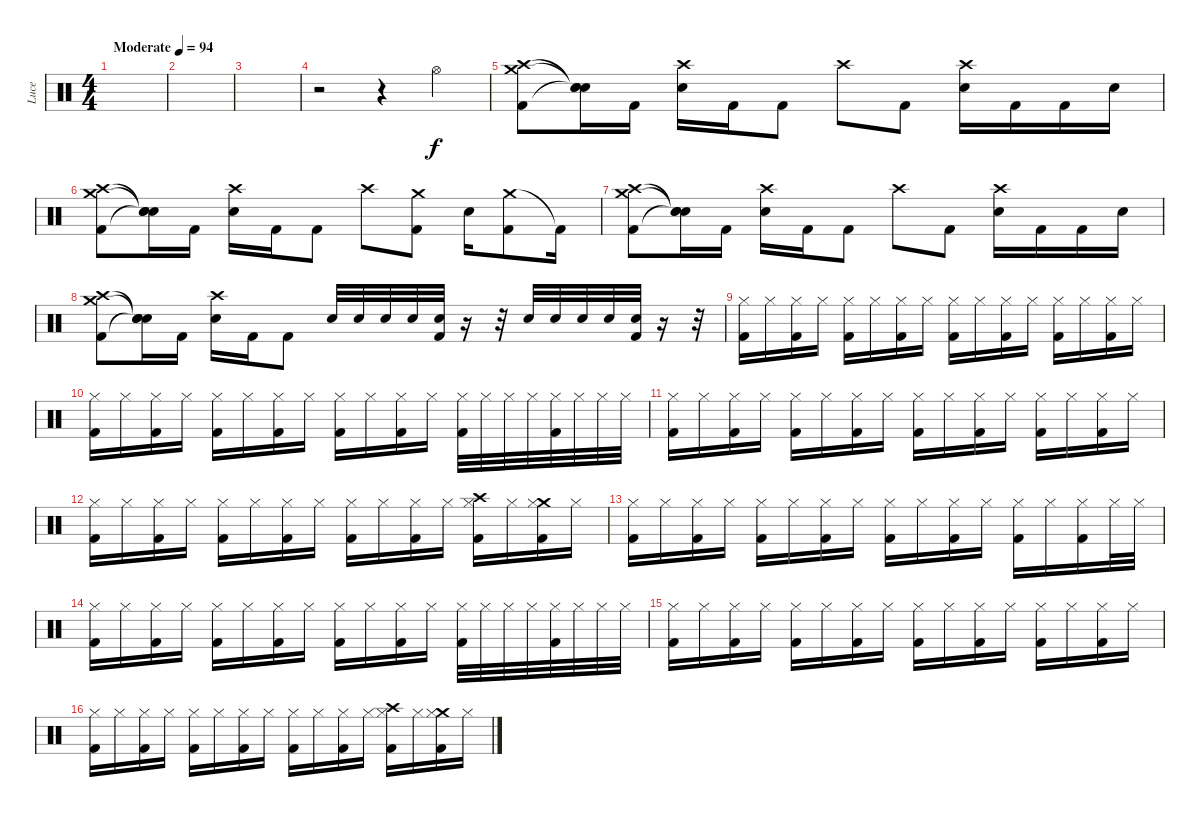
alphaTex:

\track ("Luce" "Luce") {instrument percussion}
\staff {score}
\articulation defaults
\ts (4 4)
\tempo (94 "Moderate")
\clef neutral
\ks c
|
|
|
r.2 r.4 "Hi-Hat (open)".4 |
("Crash high (hit)" "Crash medium (hit)" "Kick (hit) 2").8 ("Snare (hit)"{t} "Snare (hit)"{t} "Snare (hit)"{t}).16 "Kick (hit) 2".16 ("Crash high (hit)" "Electric Snare (hit)").16 "Kick (hit) 2".16 "Kick (hit) 2".8 "Crash high (hit)".8 "Kick (hit) 2".8 ("Crash high (hit)" "Electric Snare (hit)").16 "Kick (hit) 2".16 "Kick (hit) 2".16 "Electric Snare (hit)".16 |
("Crash high (hit)" "Crash medium (hit)" "Kick (hit) 2").8 ("Snare (hit)"{t} "Snare (hit)"{t} "Snare (hit)"{t}).16 "Kick (hit) 2".16 ("Crash high (hit)" "Electric Snare (hit)").16 "Kick (hit) 2".16 "Kick (hit) 2".8 "Crash high (hit)".8 ("Crash medium (hit)" "Kick (hit) 2").8 "Electric Snare (hit)".16 ("Crash medium (hit)" "Kick (hit) 2").8 "Kick (hit) 2"{t}.16 |
("Crash high (hit)" "Crash medium (hit)" "Kick (hit) 2").8 ("Snare (hit)"{t} "Snare (hit)"{t} "Snare (hit)"{t}).16 "Kick (hit) 2".16 ("Crash high (hit)" "Electric Snare (hit)").16 "Kick (hit) 2".16 "Kick (hit) 2".8 "Crash high (hit)".8 "Kick (hit) 2".8 ("Crash high (hit)" "Electric Snare (hit)").16 "Kick (hit) 2".16 "Kick (hit) 2".16 "Electric Snare (hit)".16 |
("Crash high (hit)" "Crash medium (hit)" "Kick (hit) 2").8 ("Snare (hit)"{t} "Snare (hit)"{t} "Snare (hit)"{t}).16 "Kick (hit) 2".16 ("Crash high (hit)" "Electric Snare (hit)").16 "Kick (hit) 2".16 "Kick (hit) 2".8 "Electric Snare (hit)".32 "Electric Snare (hit)".32 "Electric Snare (hit)".32 "Electric Snare (hit)".32 ("Electric Snare (hit)" "Kick (hit) 2").32 r.16 r.32 "Electric Snare (hit)".32 "Electric Snare (hit)".32 "Electric Snare (hit)".32 "Electric Snare (hit)".32 ("Electric Snare (hit)" "Kick (hit) 2").32 r.16 r.32 |
("Hi-Hat (closed)" "Kick (hit) 2").16 "Hi-Hat (closed)".16 ("Hi-Hat (closed)" "Kick (hit) 2").16 "Hi-Hat (closed)".16 ("Hi-Hat (closed)" "Kick (hit) 2").16 "Hi-Hat (closed)".16 ("Hi-Hat (closed)" "Kick (hit) 2").16 "Hi-Hat (closed)".16 ("Hi-Hat (closed)" "Kick (hit) 2").16 "Hi-Hat (closed)".16 ("Hi-Hat (closed)" "Kick (hit) 2").16 "Hi-Hat (closed)".16 ("Hi-Hat (closed)" "Kick (hit) 2").16 "Hi-Hat (closed)".16 ("Hi-Hat (closed)" "Kick (hit) 2").16 "Hi-Hat (closed)".16 |
("Hi-Hat (closed)" "Kick (hit) 2").16 "Hi-Hat (closed)".16 ("Hi-Hat (closed)" "Kick (hit) 2").16 "Hi-Hat (closed)".16 ("Hi-Hat (closed)" "Kick (hit) 2").16 "Hi-Hat (closed)".16 ("Hi-Hat (closed)" "Kick (hit) 2").16 "Hi-Hat (closed)".16 ("Hi-Hat (closed)" "Kick (hit) 2").16 "Hi-Hat (closed)".16 ("Hi-Hat (closed)" "Kick (hit) 2").16 "Hi-Hat (closed)".16 ("Hi-Hat (closed)" "Kick (hit) 2").32 "Hi-Hat (closed)".32 "Hi-Hat (closed)".32 "Hi-Hat (closed)".32 ("Hi-Hat (closed)" "Kick (hit) 2").32 "Hi-Hat (closed)".32 "Hi-Hat (closed)".32 "Hi-Hat (closed)".32 |
("Hi-Hat (closed)" "Kick (hit) 2").16 "Hi-Hat (closed)".16 ("Hi-Hat (closed)" "Kick (hit) 2").16 "Hi-Hat (closed)".16 ("Hi-Hat (closed)" "Kick (hit) 2").16 "Hi-Hat (closed)".16 ("Hi-Hat (closed)" "Kick (hit) 2").16 "Hi-Hat (closed)".16 ("Hi-Hat (closed)" "Kick (hit) 2").16 "Hi-Hat (closed)".16 ("Hi-Hat (closed)" "Kick (hit) 2").16 "Hi-Hat (closed)".16 ("Hi-Hat (closed)" "Kick (hit) 2").16 "Hi-Hat (closed)".16 ("Hi-Hat (closed)" "Kick (hit) 2").16 "Hi-Hat (closed)".16 |
("Hi-Hat (closed)" "Kick (hit) 2").16 "Hi-Hat (closed)".16 ("Hi-Hat (closed)" "Kick (hit) 2").16 "Hi-Hat (closed)".16 ("Hi-Hat (closed)" "Kick (hit) 2").16 "Hi-Hat (closed)".16 ("Hi-Hat (closed)" "Kick (hit) 2").16 "Hi-Hat (closed)".16 ("Hi-Hat (closed)" "Kick (hit) 2").16 "Hi-Hat (closed)".16 ("Hi-Hat (closed)" "Kick (hit) 2").16 "Hi-Hat (closed)".16 ("Crash high (hit)" "Hi-Hat (closed)" "Kick (hit) 2").16 "Hi-Hat (closed)".16 ("Crash medium (hit)" "Hi-Hat (closed)" "Kick (hit) 2").16 "Hi-Hat (closed)".16 |
("Hi-Hat (closed)" "Kick (hit) 2").16 "Hi-Hat (closed)".16 ("Hi-Hat (closed)" "Kick (hit) 2").16 "Hi-Hat (closed)".16 ("Hi-Hat (closed)" "Kick (hit) 2").16 "Hi-Hat (closed)".16 ("Hi-Hat (closed)" "Kick (hit) 2").16 "Hi-Hat (closed)".16 ("Hi-Hat (closed)" "Kick (hit) 2").16 "Hi-Hat (closed)".16 ("Hi-Hat (closed)" "Kick (hit) 2").16 "Hi-Hat (closed)".16 ("Hi-Hat (closed)" "Kick (hit) 2").16 "Hi-Hat (closed)".16 ("Hi-Hat (closed)" "Kick (hit) 2").16 "Hi-Hat (closed)".32 "Hi-Hat (closed)".32 |
("Hi-Hat (closed)" "Kick (hit) 2").16 "Hi-Hat (closed)".16 ("Hi-Hat (closed)" "Kick (hit) 2").16 "Hi-Hat (closed)".16 ("Hi-Hat (closed)" "Kick (hit) 2").16 "Hi-Hat (closed)".16 ("Hi-Hat (closed)" "Kick (hit) 2").16 "Hi-Hat (closed)".16 ("Hi-Hat (closed)" "Kick (hit) 2").16 "Hi-Hat (closed)".16 ("Hi-Hat (closed)" "Kick (hit) 2").16 "Hi-Hat (closed)".16 ("Hi-Hat (closed)" "Kick (hit) 2").32 "Hi-Hat (closed)".32 "Hi-Hat (closed)".32 "Hi-Hat (closed)".32 ("Hi-Hat (closed)" "Kick (hit) 2").32 "Hi-Hat (closed)".32 "Hi-Hat (closed)".32 "Hi-Hat (closed)".32 |
("Hi-Hat (closed)" "Kick (hit) 2").16 "Hi-Hat (closed)".16 ("Hi-Hat (closed)" "Kick (hit) 2").16 "Hi-Hat (closed)".16 ("Hi-Hat (closed)" "Kick (hit) 2").16 "Hi-Hat (closed)".16 ("Hi-Hat (closed)" "Kick (hit) 2").16 "Hi-Hat (closed)".16 ("Hi-Hat (closed)" "Kick (hit) 2").16 "Hi-Hat (closed)".16 ("Hi-Hat (closed)" "Kick (hit) 2").16 "Hi-Hat (closed)".16 ("Hi-Hat (closed)" "Kick (hit) 2").16 "Hi-Hat (closed)".16 ("Hi-Hat (closed)" "Kick (hit) 2").16 "Hi-Hat (closed)".16 |
("Hi-Hat (closed)" "Kick (hit) 2").16 "Hi-Hat (closed)".16 ("Hi-Hat (closed)" "Kick (hit) 2").16 "Hi-Hat (closed)".16 ("Hi-Hat (closed)" "Kick (hit) 2").16 "Hi-Hat (closed)".16 ("Hi-Hat (closed)" "Kick (hit) 2").16 "Hi-Hat (closed)".16 ("Hi-Hat (closed)" "Kick (hit) 2").16 "Hi-Hat (closed)".16 ("Hi-Hat (closed)" "Kick (hit) 2").16 "Hi-Hat (closed)".16 ("Crash high (hit)" "Hi-Hat (closed)" "Kick (hit) 2").16 "Hi-Hat (closed)".16 ("Crash medium (hit)" "Hi-Hat (closed)" "Kick (hit) 2").16 "Hi-Hat (closed)".16
